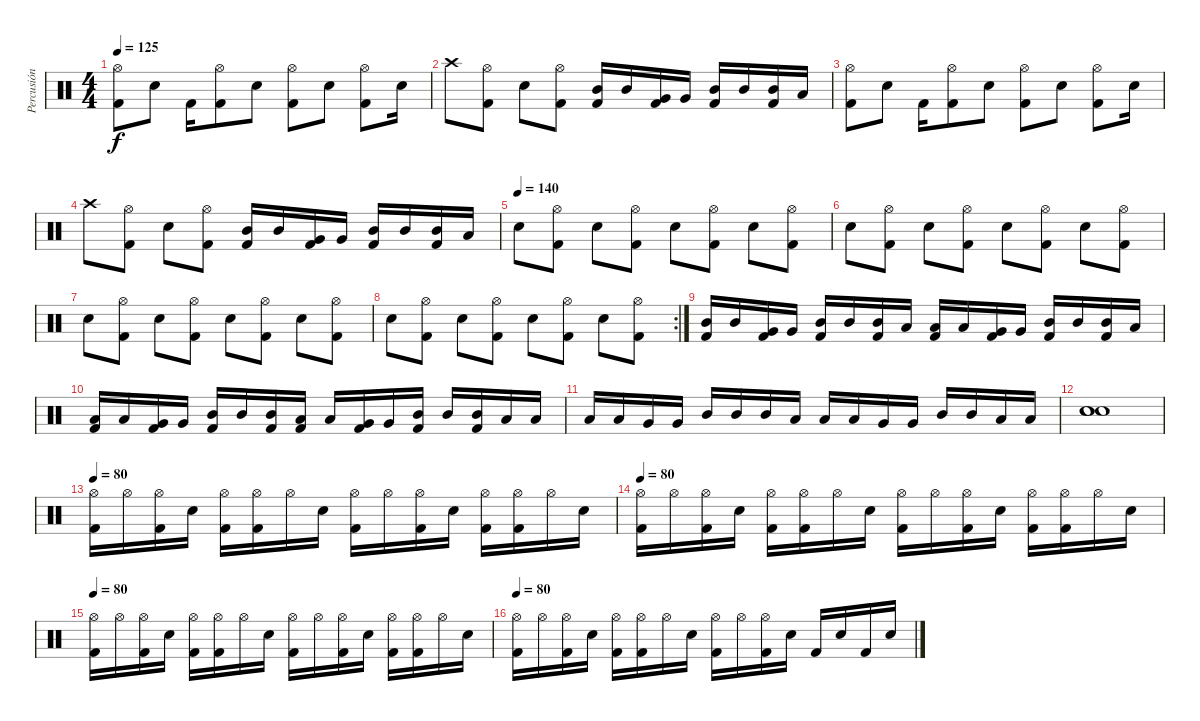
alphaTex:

\track ("Percusión" "Percusión") {instrument percussion}
\staff {score}
\articulation defaults
\ts (4 4)
\tempo 125
\clef neutral
\ks c
("Hi-Hat (open)" "Kick (hit) 2").8{dy f} "Electric Snare (hit)".8 "Kick (hit) 2".16 ("Hi-Hat (open)" "Kick (hit) 2").8 "Electric Snare (hit)".8 ("Hi-Hat (open)" "Kick (hit) 2").8 "Electric Snare (hit)".8 ("Hi-Hat (open)" "Kick (hit) 2").8 "Electric Snare (hit)".16 |
"Crash high (hit)".8 ("Hi-Hat (open)" "Kick (hit) 2").8 "Electric Snare (hit)".8 ("Hi-Hat (open)" "Kick (hit) 2").8 ("Mid Tom (hit)" "Kick (hit) 2").16 "Mid Tom (hit)".16 ("Very Low Tom (hit)" "Kick (hit) 2").16 "Very Low Tom (hit)".16 ("Mid Tom (hit)" "Kick (hit) 2").16 "Mid Tom (hit)".16 ("Mid Tom (hit)" "Kick (hit) 2").16 "Low Tom (hit)".16 |
("Hi-Hat (open)" "Kick (hit) 2").8 "Electric Snare (hit)".8 "Kick (hit) 2".16 ("Hi-Hat (open)" "Kick (hit) 2").8 "Electric Snare (hit)".8 ("Hi-Hat (open)" "Kick (hit) 2").8 "Electric Snare (hit)".8 ("Hi-Hat (open)" "Kick (hit) 2").8 "Electric Snare (hit)".16 |
"Crash high (hit)".8 ("Hi-Hat (open)" "Kick (hit) 2").8 "Electric Snare (hit)".8 ("Hi-Hat (open)" "Kick (hit) 2").8 ("Mid Tom (hit)" "Kick (hit) 2").16 "Mid Tom (hit)".16 ("Very Low Tom (hit)" "Kick (hit) 2").16 "Very Low Tom (hit)".16 ("Mid Tom (hit)" "Kick (hit) 2").16 "Mid Tom (hit)".16 ("Mid Tom (hit)" "Kick (hit) 2").16 "Low Tom (hit)".16 |
\tempo (140)
"Electric Snare (hit)".8 ("Hi-Hat (open)" "Kick (hit) 2").8 "Electric Snare (hit)".8 ("Hi-Hat (open)" "Kick (hit) 2").8 "Electric Snare (hit)".8 ("Hi-Hat (open)" "Kick (hit) 2").8 "Electric Snare (hit)".8 ("Hi-Hat (open)" "Kick (hit) 2").8 |
"Electric Snare (hit)".8 ("Hi-Hat (open)" "Kick (hit) 2").8 "Electric Snare (hit)".8 ("Hi-Hat (open)" "Kick (hit) 2").8 "Electric Snare (hit)".8 ("Hi-Hat (open)" "Kick (hit) 2").8 "Electric Snare (hit)".8 ("Hi-Hat (open)" "Kick (hit) 2").8 |
"Electric Snare (hit)".8 ("Hi-Hat (open)" "Kick (hit) 2").8 "Electric Snare (hit)".8 ("Hi-Hat (open)" "Kick (hit) 2").8 "Electric Snare (hit)".8 ("Hi-Hat (open)" "Kick (hit) 2").8 "Electric Snare (hit)".8 ("Hi-Hat (open)" "Kick (hit) 2").8 |
\rc 2 "Electric Snare (hit)".8
("Hi-Hat (open)" "Kick (hit) 2").8 "Electric Snare (hit)".8 ("Hi-Hat (open)" "Kick (hit) 2").8 "Electric Snare (hit)".8 ("Hi-Hat (open)" "Kick (hit) 2").8 "Electric Snare (hit)".8 ("Hi-Hat (open)" "Kick (hit) 2").8 |
("Mid Tom (hit)" "Kick (hit) 2").16 "Mid Tom (hit)".16 ("Very Low Tom (hit)" "Kick (hit) 2").16 "Very Low Tom (hit)".16 ("Mid Tom (hit)" "Kick (hit) 2").16 "Mid Tom (hit)".16 ("Mid Tom (hit)" "Kick (hit) 2").16 "Low Tom (hit)".16 ("Low Tom (hit)" "Kick (hit) 2").16 "Low Tom (hit)".16 ("Very Low Tom (hit)" "Kick (hit) 2").16 "Very Low Tom (hit)".16 ("Mid Tom (hit)" "Kick (hit) 2").16 "Mid Tom (hit)".16 ("Mid Tom (hit)" "Kick (hit) 2").16 "Low Tom (hit)".16 |
("Low Tom (hit)" "Kick (hit) 2").16 "Low Tom (hit)".16 ("Very Low Tom (hit)" "Kick (hit) 2").16 "Very Low Tom (hit)".16 ("Mid Tom (hit)" "Kick (hit) 2").16 "Mid Tom (hit)".16 ("Mid Tom (hit)" "Kick (hit) 2").16 ("Low Tom (hit)" "Kick (hit) 2").16 "Low Tom (hit)".16 ("Very Low Tom (hit)" "Kick (hit) 2").16 "Very Low Tom (hit)".16 ("Mid Tom (hit)" "Kick (hit) 2").16 "Mid Tom (hit)".16 ("Mid Tom (hit)" "Kick (hit) 2").16 "Low Tom (hit)".16 "Low Tom (hit)".16 |
"Low Tom (hit)".16 "Low Tom (hit)".16 "Very Low Tom (hit)".16 "Very Low Tom (hit)".16 "Mid Tom (hit)".16 "Mid Tom (hit)".16 "Mid Tom (hit)".16 "Low Tom (hit)".16 "Low Tom (hit)".16 "Low Tom (hit)".16 "Very Low Tom (hit)".16 "Very Low Tom (hit)".16 "Mid Tom (hit)".16 "Mid Tom (hit)".16 "Low Tom (hit)".16 "Low Tom (hit)".16 |
("Electric Snare (hit)" "Electric Snare (hit)" "Electric Snare (hit)").1 |
\tempo 80
("Hi-Hat (open)" "Kick (hit) 2").16 "Hi-Hat (open)".16 ("Hi-Hat (open)" "Kick (hit) 2").16 "Electric Snare (hit)".16 ("Hi-Hat (open)" "Kick (hit) 2").16 ("Hi-Hat (open)" "Kick (hit) 2").16 "Hi-Hat (open)".16 "Electric Snare (hit)".16 ("Hi-Hat (open)" "Kick (hit) 2").16 "Hi-Hat (open)".16 ("Hi-Hat (open)" "Kick (hit) 2").16 "Electric Snare (hit)".16 ("Hi-Hat (open)" "Kick (hit) 2").16 ("Hi-Hat (open)" "Kick (hit) 2").16 "Hi-Hat (open)".16 "Electric Snare (hit)".16 |
\tempo 80
("Hi-Hat (open)" "Kick (hit) 2").16 "Hi-Hat (open)".16 ("Hi-Hat (open)" "Kick (hit) 2").16 "Electric Snare (hit)".16 ("Hi-Hat (open)" "Kick (hit) 2").16 ("Hi-Hat (open)" "Kick (hit) 2").16 "Hi-Hat (open)".16 "Electric Snare (hit)".16 ("Hi-Hat (open)" "Kick (hit) 2").16 "Hi-Hat (open)".16 ("Hi-Hat (open)" "Kick (hit) 2").16 "Electric Snare (hit)".16 ("Hi-Hat (open)" "Kick (hit) 2").16 ("Hi-Hat (open)" "Kick (hit) 2").16 "Hi-Hat (open)".16 "Electric Snare (hit)".16 |
\tempo 80
("Hi-Hat (open)" "Kick (hit) 2").16 "Hi-Hat (open)".16 ("Hi-Hat (open)" "Kick (hit) 2").16 "Electric Snare (hit)".16 ("Hi-Hat (open)" "Kick (hit) 2").16 ("Hi-Hat (open)" "Kick (hit) 2").16 "Hi-Hat (open)".16 "Electric Snare (hit)".16 ("Hi-Hat (open)" "Kick (hit) 2").16 "Hi-Hat (open)".16 ("Hi-Hat (open)" "Kick (hit) 2").16 "Electric Snare (hit)".16 ("Hi-Hat (open)" "Kick (hit) 2").16 ("Hi-Hat (open)" "Kick (hit) 2").16 "Hi-Hat (open)".16 "Electric Snare (hit)".16 |
\tempo 80
("Hi-Hat (open)" "Kick (hit) 2").16 "Hi-Hat (open)".16 ("Hi-Hat (open)" "Kick (hit) 2").16 "Electric Snare (hit)".16 ("Hi-Hat (open)" "Kick (hit) 2").16 ("Hi-Hat (open)" "Kick (hit) 2").16 "Hi-Hat (open)".16 "Electric Snare (hit)".16 ("Hi-Hat (open)" "Kick (hit) 2").16 "Hi-Hat (open)".16 ("Hi-Hat (open)" "Kick (hit) 2").16 "Electric Snare (hit)".16 "Kick (hit) 2".16 "Electric Snare (hit)".16 "Kick (hit) 2".16 "Electric Snare (hit)".16
